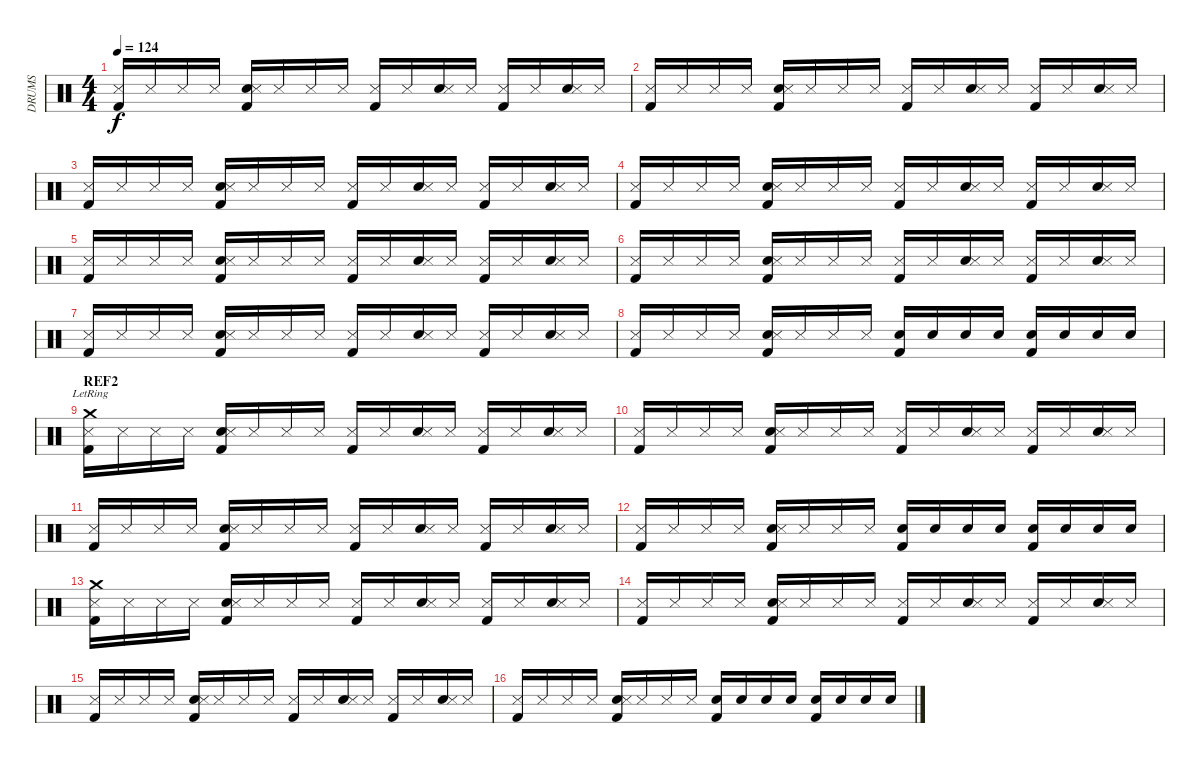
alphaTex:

\track ("DRUMS" "DRUMS") {instrument percussion}
\staff {score}
\articulation defaults
\ts (4 4)
\tempo 124
\clef neutral
\ks c
("Kick (hit) 2" "Snare (side stick) 3").16{dy f} "Snare (side stick) 3".16 "Snare (side stick) 3".16 "Snare (side stick) 3".16 ("Kick (hit) 2" "Snare (hit) 2" "Snare (side stick) 3").16 "Snare (side stick) 3".16 "Snare (side stick) 3".16 "Snare (side stick) 3".16 ("Kick (hit) 2" "Snare (side stick) 3").16 "Snare (side stick) 3".16 ("Snare (hit) 2" "Snare (side stick) 3").16 "Snare (side stick) 3".16 ("Kick (hit) 2" "Snare (side stick) 3").16 "Snare (side stick) 3".16 ("Snare (hit) 2" "Snare (side stick) 3").16 "Snare (side stick) 3".16 |
("Kick (hit) 2" "Snare (side stick) 3").16 "Snare (side stick) 3".16 "Snare (side stick) 3".16 "Snare (side stick) 3".16 ("Kick (hit) 2" "Snare (hit) 2" "Snare (side stick) 3").16 "Snare (side stick) 3".16 "Snare (side stick) 3".16 "Snare (side stick) 3".16 ("Kick (hit) 2" "Snare (side stick) 3").16 "Snare (side stick) 3".16 ("Snare (hit) 2" "Snare (side stick) 3").16 "Snare (side stick) 3".16 ("Kick (hit) 2" "Snare (side stick) 3").16 "Snare (side stick) 3".16 ("Snare (hit) 2" "Snare (side stick) 3").16 "Snare (side stick) 3".16 |
("Kick (hit) 2" "Snare (side stick) 3").16 "Snare (side stick) 3".16 "Snare (side stick) 3".16 "Snare (side stick) 3".16 ("Kick (hit) 2" "Snare (hit) 2" "Snare (side stick) 3").16 "Snare (side stick) 3".16 "Snare (side stick) 3".16 "Snare (side stick) 3".16 ("Kick (hit) 2" "Snare (side stick) 3").16 "Snare (side stick) 3".16 ("Snare (hit) 2" "Snare (side stick) 3").16 "Snare (side stick) 3".16 ("Kick (hit) 2" "Snare (side stick) 3").16 "Snare (side stick) 3".16 ("Snare (hit) 2" "Snare (side stick) 3").16 "Snare (side stick) 3".16 |
("Kick (hit) 2" "Snare (side stick) 3").16 "Snare (side stick) 3".16 "Snare (side stick) 3".16 "Snare (side stick) 3".16 ("Kick (hit) 2" "Snare (hit) 2" "Snare (side stick) 3").16 "Snare (side stick) 3".16 "Snare (side stick) 3".16 "Snare (side stick) 3".16 ("Kick (hit) 2" "Snare (side stick) 3").16 "Snare (side stick) 3".16 ("Snare (hit) 2" "Snare (side stick) 3").16 "Snare (side stick) 3".16 ("Kick (hit) 2" "Snare (side stick) 3").16 "Snare (side stick) 3".16 ("Snare (hit) 2" "Snare (side stick) 3").16 "Snare (side stick) 3".16 |
("Kick (hit) 2" "Snare (side stick) 3").16 "Snare (side stick) 3".16 "Snare (side stick) 3".16 "Snare (side stick) 3".16 ("Kick (hit) 2" "Snare (hit) 2" "Snare (side stick) 3").16 "Snare (side stick) 3".16 "Snare (side stick) 3".16 "Snare (side stick) 3".16 ("Kick (hit) 2" "Snare (side stick) 3").16 "Snare (side stick) 3".16 ("Snare (hit) 2" "Snare (side stick) 3").16 "Snare (side stick) 3".16 ("Kick (hit) 2" "Snare (side stick) 3").16 "Snare (side stick) 3".16 ("Snare (hit) 2" "Snare (side stick) 3").16 "Snare (side stick) 3".16 |
("Kick (hit) 2" "Snare (side stick) 3").16 "Snare (side stick) 3".16 "Snare (side stick) 3".16 "Snare (side stick) 3".16 ("Kick (hit) 2" "Snare (hit) 2" "Snare (side stick) 3").16 "Snare (side stick) 3".16 "Snare (side stick) 3".16 "Snare (side stick) 3".16 ("Kick (hit) 2" "Snare (side stick) 3").16 "Snare (side stick) 3".16 ("Snare (hit) 2" "Snare (side stick) 3").16 "Snare (side stick) 3".16 ("Kick (hit) 2" "Snare (side stick) 3").16 "Snare (side stick) 3".16 ("Snare (hit) 2" "Snare (side stick) 3").16 "Snare (side stick) 3".16 |
("Kick (hit) 2" "Snare (side stick) 3").16 "Snare (side stick) 3".16 "Snare (side stick) 3".16 "Snare (side stick) 3".16 ("Kick (hit) 2" "Snare (hit) 2" "Snare (side stick) 3").16 "Snare (side stick) 3".16 "Snare (side stick) 3".16 "Snare (side stick) 3".16 ("Kick (hit) 2" "Snare (side stick) 3").16 "Snare (side stick) 3".16 ("Snare (hit) 2" "Snare (side stick) 3").16 "Snare (side stick) 3".16 ("Kick (hit) 2" "Snare (side stick) 3").16 "Snare (side stick) 3".16 ("Snare (hit) 2" "Snare (side stick) 3").16 "Snare (side stick) 3".16 |
("Kick (hit) 2" "Snare (side stick) 3").16 "Snare (side stick) 3".16 "Snare (side stick) 3".16 "Snare (side stick) 3".16 ("Kick (hit) 2" "Snare (hit) 2" "Snare (side stick) 3").16 "Snare (side stick) 3".16 "Snare (side stick) 3".16 "Snare (side stick) 3".16 ("Kick (hit) 2" "Snare (hit) 2").16 "Snare (hit) 2".16 "Snare (hit) 2".16 "Snare (hit) 2".16 ("Kick (hit) 2" "Snare (hit) 2").16 "Snare (hit) 2".16 "Snare (hit) 2".16 "Snare (hit) 2".16 |
\section ("" "REF2")
("Kick (hit) 2" "Snare (side stick) 3" "Crash medium (hit)"{lr}).16 "Snare (side stick) 3".16 "Snare (side stick) 3".16 "Snare (side stick) 3".16 ("Kick (hit) 2" "Snare (hit) 2" "Snare (side stick) 3").16 "Snare (side stick) 3".16 "Snare (side stick) 3".16 "Snare (side stick) 3".16 ("Kick (hit) 2" "Snare (side stick) 3").16 "Snare (side stick) 3".16 ("Snare (hit) 2" "Snare (side stick) 3").16 "Snare (side stick) 3".16 ("Kick (hit) 2" "Snare (side stick) 3").16 "Snare (side stick) 3".16 ("Snare (hit) 2" "Snare (side stick) 3").16 "Snare (side stick) 3".16 |
("Kick (hit) 2" "Snare (side stick) 3").16 "Snare (side stick) 3".16 "Snare (side stick) 3".16 "Snare (side stick) 3".16 ("Kick (hit) 2" "Snare (hit) 2" "Snare (side stick) 3").16 "Snare (side stick) 3".16 "Snare (side stick) 3".16 "Snare (side stick) 3".16 ("Kick (hit) 2" "Snare (side stick) 3").16 "Snare (side stick) 3".16 ("Snare (hit) 2" "Snare (side stick) 3").16 "Snare (side stick) 3".16 ("Kick (hit) 2" "Snare (side stick) 3").16 "Snare (side stick) 3".16 ("Snare (hit) 2" "Snare (side stick) 3").16 "Snare (side stick) 3".16 |
("Kick (hit) 2" "Snare (side stick) 3").16 "Snare (side stick) 3".16 "Snare (side stick) 3".16 "Snare (side stick) 3".16 ("Kick (hit) 2" "Snare (hit) 2" "Snare (side stick) 3").16 "Snare (side stick) 3".16 "Snare (side stick) 3".16 "Snare (side stick) 3".16 ("Kick (hit) 2" "Snare (side stick) 3").16 "Snare (side stick) 3".16 ("Snare (hit) 2" "Snare (side stick) 3").16 "Snare (side stick) 3".16 ("Kick (hit) 2" "Snare (side stick) 3").16 "Snare (side stick) 3".16 ("Snare (hit) 2" "Snare (side stick) 3").16 "Snare (side stick) 3".16 |
("Kick (hit) 2" "Snare (side stick) 3").16 "Snare (side stick) 3".16 "Snare (side stick) 3".16 "Snare (side stick) 3".16 ("Kick (hit) 2" "Snare (hit) 2" "Snare (side stick) 3").16 "Snare (side stick) 3".16 "Snare (side stick) 3".16 "Snare (side stick) 3".16 ("Kick (hit) 2" "Snare (hit) 2").16 "Snare (hit) 2".16 "Snare (hit) 2".16 "Snare (hit) 2".16 ("Kick (hit) 2" "Snare (hit) 2").16 "Snare (hit) 2".16 "Snare (hit) 2".16 "Snare (hit) 2".16 |
("Kick (hit) 2" "Snare (side stick) 3" "Crash medium (hit)").16 "Snare (side stick) 3".16 "Snare (side stick) 3".16 "Snare (side stick) 3".16 ("Kick (hit) 2" "Snare (hit) 2" "Snare (side stick) 3").16 "Snare (side stick) 3".16 "Snare (side stick) 3".16 "Snare (side stick) 3".16 ("Kick (hit) 2" "Snare (side stick) 3").16 "Snare (side stick) 3".16 ("Snare (hit) 2" "Snare (side stick) 3").16 "Snare (side stick) 3".16 ("Kick (hit) 2" "Snare (side stick) 3").16 "Snare (side stick) 3".16 ("Snare (hit) 2" "Snare (side stick) 3").16 "Snare (side stick) 3".16 |
("Kick (hit) 2" "Snare (side stick) 3").16 "Snare (side stick) 3".16 "Snare (side stick) 3".16 "Snare (side stick) 3".16 ("Kick (hit) 2" "Snare (hit) 2" "Snare (side stick) 3").16 "Snare (side stick) 3".16 "Snare (side stick) 3".16 "Snare (side stick) 3".16 ("Kick (hit) 2" "Snare (side stick) 3").16 "Snare (side stick) 3".16 ("Snare (hit) 2" "Snare (side stick) 3").16 "Snare (side stick) 3".16 ("Kick (hit) 2" "Snare (side stick) 3").16 "Snare (side stick) 3".16 ("Snare (hit) 2" "Snare (side stick) 3").16 "Snare (side stick) 3".16 |
("Kick (hit) 2" "Snare (side stick) 3").16 "Snare (side stick) 3".16 "Snare (side stick) 3".16 "Snare (side stick) 3".16 ("Kick (hit) 2" "Snare (hit) 2" "Snare (side stick) 3").16 "Snare (side stick) 3".16 "Snare (side stick) 3".16 "Snare (side stick) 3".16 ("Kick (hit) 2" "Snare (side stick) 3").16 "Snare (side stick) 3".16 ("Snare (hit) 2" "Snare (side stick) 3").16 "Snare (side stick) 3".16 ("Kick (hit) 2" "Snare (side stick) 3").16 "Snare (side stick) 3".16 ("Snare (hit) 2" "Snare (side stick) 3").16 "Snare (side stick) 3".16 |
("Kick (hit) 2" "Snare (side stick) 3").16 "Snare (side stick) 3".16 "Snare (side stick) 3".16 "Snare (side stick) 3".16 ("Kick (hit) 2" "Snare (hit) 2" "Snare (side stick) 3").16 "Snare (side stick) 3".16 "Snare (side stick) 3".16 "Snare (side stick) 3".16 ("Kick (hit) 2" "Snare (hit) 2").16 "Snare (hit) 2".16 "Snare (hit) 2".16 "Snare (hit) 2".16 ("Kick (hit) 2" "Snare (hit) 2").16 "Snare (hit) 2".16 "Snare (hit) 2".16 "Snare (hit) 2".16
